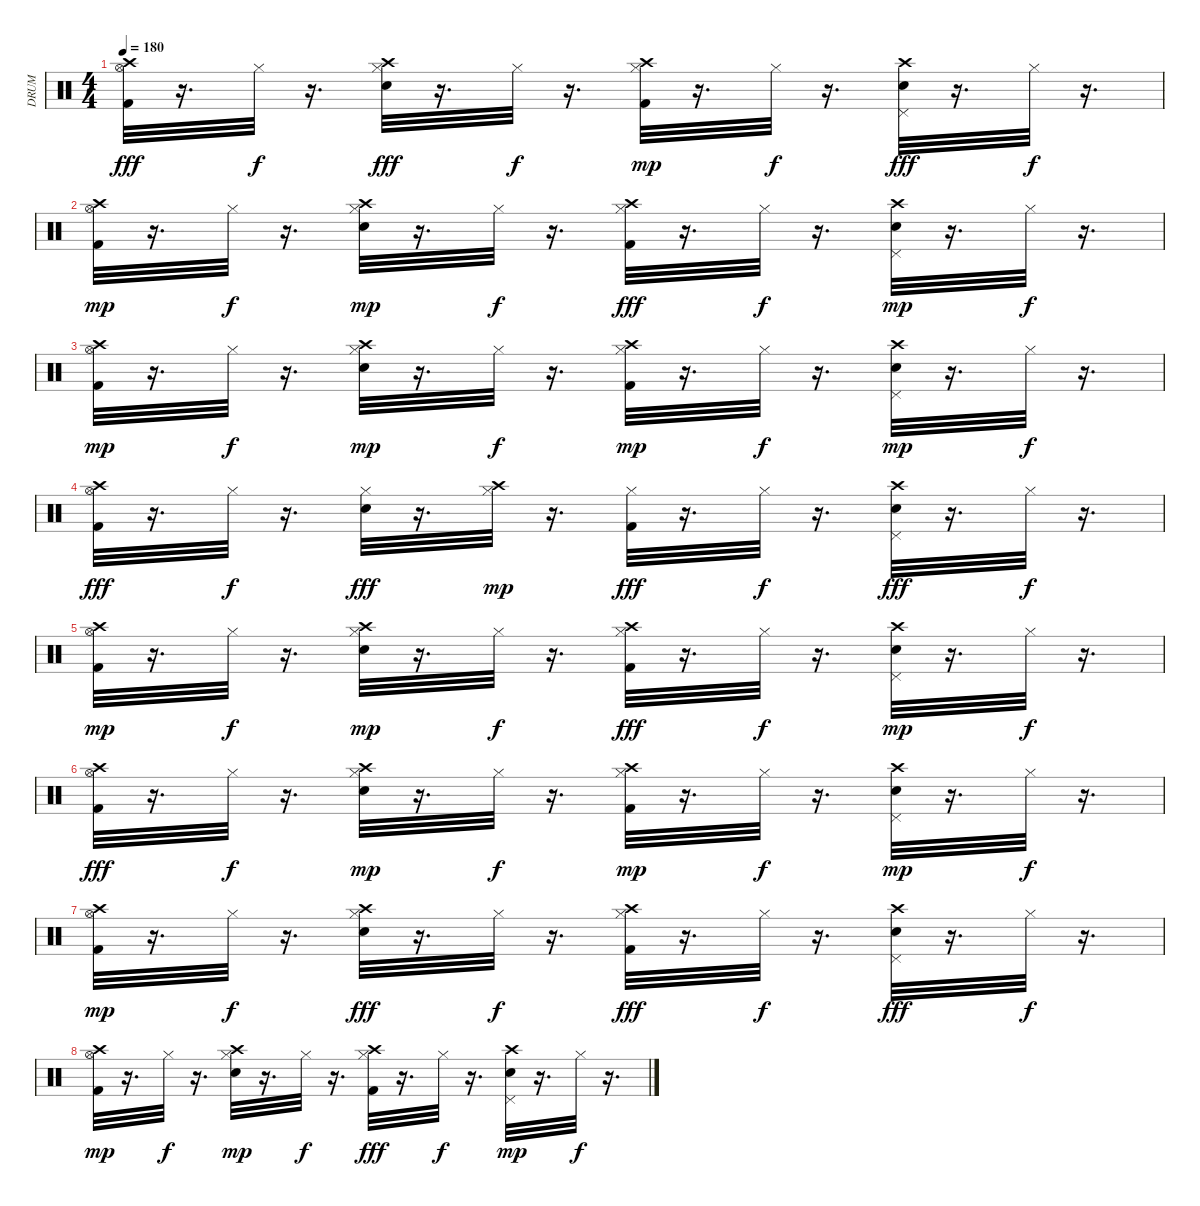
\track ("DRUM" "DRUM") {instrument percussion}
\staff {score}
\articulation defaults
\ts (4 4)
\tempo 180
\clef neutral
\ks c
("Crash high (hit)" "Hi-Hat (open)" "Kick (hit) 2").32{dy fff} r.16{d} "Hi-Hat (closed)".32{dy f} r.16{d} ("Crash high (hit)" "Hi-Hat (closed)" "Snare (hit) 2").32{dy fff} r.16{d} "Hi-Hat (closed)".32{dy f} r.16{d} ("Hi-Hat (closed)" "Crash high (hit)" "Kick (hit) 2").32{dy mp} r.16{d} "Hi-Hat (closed)".32{dy f} r.16{d} ("Crash high (hit)" "Pedal Hi-Hat (hit)" "Snare (hit) 2").32{dy fff} r.16{d} "Hi-Hat (closed)".32{dy f} r.16{d} |
("Hi-Hat (open)" "Kick (hit) 2" "Crash high (hit)").32{dy mp} r.16{d} "Hi-Hat (closed)".32{dy f} r.16{d} ("Hi-Hat (closed)" "Crash high (hit)" "Snare (hit) 2").32{dy mp} r.16{d} "Hi-Hat (closed)".32{dy f} r.16{d} ("Kick (hit) 2" "Crash high (hit)" "Hi-Hat (closed)").32{dy fff} r.16{d} "Hi-Hat (closed)".32{dy f} r.16{d} ("Pedal Hi-Hat (hit)" "Crash high (hit)" "Snare (hit) 2").32{dy mp} r.16{d} "Hi-Hat (closed)".32{dy f} r.16{d} |
("Hi-Hat (open)" "Kick (hit) 2" "Crash high (hit)").32{dy mp} r.16{d} "Hi-Hat (closed)".32{dy f} r.16{d} ("Hi-Hat (closed)" "Crash high (hit)" "Snare (hit) 2").32{dy mp} r.16{d} "Hi-Hat (closed)".32{dy f} r.16{d} ("Hi-Hat (closed)" "Crash high (hit)" "Kick (hit) 2").32{dy mp} r.16{d} "Hi-Hat (closed)".32{dy f} r.16{d} ("Pedal Hi-Hat (hit)" "Crash high (hit)" "Snare (hit) 2").32{dy mp} r.16{d} "Hi-Hat (closed)".32{dy f} r.16{d} |
("Crash high (hit)" "Hi-Hat (open)" "Kick (hit) 2").32{dy fff} r.16{d} "Hi-Hat (closed)".32{dy f} r.16{d} ("Hi-Hat (closed)" "Snare (hit) 2").32{dy fff} r.16{d} ("Hi-Hat (closed)" "Crash high (hit)").32{dy mp} r.16{d} ("Kick (hit) 2" "Hi-Hat (closed)").32{dy fff} r.16{d} "Hi-Hat (closed)".32{dy f} r.16{d} ("Crash high (hit)" "Snare (hit) 2" "Pedal Hi-Hat (hit)").32{dy fff} r.16{d} "Hi-Hat (closed)".32{dy f} r.16{d} |
("Kick (hit) 2" "Hi-Hat (open)" "Crash high (hit)").32{dy mp} r.16{d} "Hi-Hat (closed)".32{dy f} r.16{d} ("Hi-Hat (closed)" "Snare (hit) 2" "Crash high (hit)").32{dy mp} r.16{d} "Hi-Hat (closed)".32{dy f} r.16{d} ("Crash high (hit)" "Hi-Hat (closed)" "Kick (hit) 2").32{dy fff} r.16{d} "Hi-Hat (closed)".32{dy f} r.16{d} ("Pedal Hi-Hat (hit)" "Crash high (hit)" "Snare (hit) 2").32{dy mp} r.16{d} "Hi-Hat (closed)".32{dy f} r.16{d} |
("Crash high (hit)" "Hi-Hat (open)" "Kick (hit) 2").32{dy fff} r.16{d} "Hi-Hat (closed)".32{dy f} r.16{d} ("Hi-Hat (closed)" "Crash high (hit)" "Snare (hit) 2").32{dy mp} r.16{d} "Hi-Hat (closed)".32{dy f} r.16{d} ("Hi-Hat (closed)" "Crash high (hit)" "Kick (hit) 2").32{dy mp} r.16{d} "Hi-Hat (closed)".32{dy f} r.16{d} ("Pedal Hi-Hat (hit)" "Snare (hit) 2" "Crash high (hit)").32{dy mp} r.16{d} "Hi-Hat (closed)".32{dy f} r.16{d} |
("Kick (hit) 2" "Hi-Hat (open)" "Crash high (hit)").32{dy mp} r.16{d} "Hi-Hat (closed)".32{dy f} r.16{d} ("Snare (hit) 2" "Crash high (hit)" "Hi-Hat (closed)").32{dy fff} r.16{d} "Hi-Hat (closed)".32{dy f} r.16{d} ("Crash high (hit)" "Hi-Hat (closed)" "Kick (hit) 2").32{dy fff} r.16{d} "Hi-Hat (closed)".32{dy f} r.16{d} ("Snare (hit) 2" "Crash high (hit)" "Pedal Hi-Hat (hit)").32{dy fff} r.16{d} "Hi-Hat (closed)".32{dy f} r.16{d} |
("Kick (hit) 2" "Hi-Hat (open)" "Crash high (hit)").32{dy mp} r.16{d} "Hi-Hat (closed)".32{dy f} r.16{d} ("Hi-Hat (closed)" "Crash high (hit)" "Snare (hit) 2").32{dy mp} r.16{d} "Hi-Hat (closed)".32{dy f} r.16{d} ("Kick (hit) 2" "Crash high (hit)" "Hi-Hat (closed)").32{dy fff} r.16{d} "Hi-Hat (closed)".32{dy f} r.16{d} ("Pedal Hi-Hat (hit)" "Crash high (hit)" "Snare (hit) 2").32{dy mp} r.16{d} "Hi-Hat (closed)".32{dy f} r.16{d}
